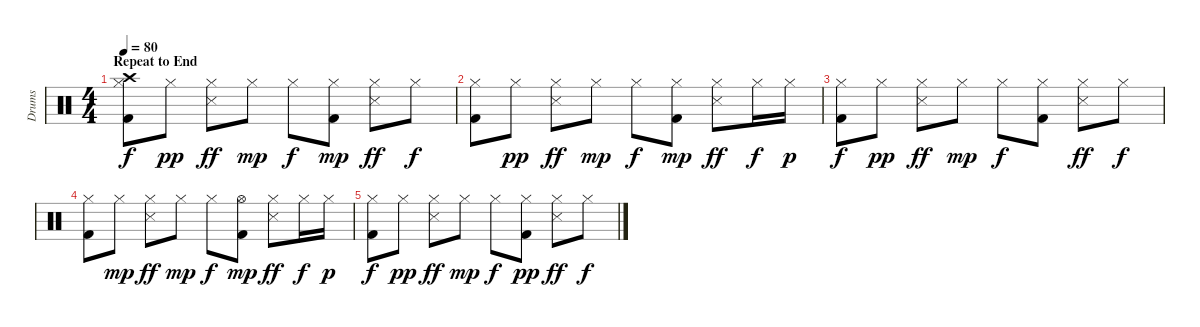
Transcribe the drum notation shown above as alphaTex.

\track ("Drums" "Drums") {instrument percussion}
\staff {score}
\articulation defaults
\ts (4 4)
\section ("" "Repeat to End")
\tempo 80
\clef neutral
\ks c
("Hi-Hat (closed)" "Kick (hit) 2" "Crash high (hit)").8{dy f} "Hi-Hat (closed)".8{dy pp} ("Hi-Hat (closed)" "Snare (side stick) 3").8{dy ff} "Hi-Hat (closed)".8{dy mp} "Hi-Hat (closed)".8{dy f} ("Hi-Hat (closed)" "Kick (hit) 2").8{dy mp} ("Hi-Hat (closed)" "Snare (side stick) 3").8{dy ff} "Hi-Hat (closed)".8{dy f} |
("Hi-Hat (closed)" "Kick (hit) 2").8 "Hi-Hat (closed)".8{dy pp} ("Hi-Hat (closed)" "Snare (side stick) 3").8{dy ff} "Hi-Hat (closed)".8{dy mp} "Hi-Hat (closed)".8{dy f} ("Hi-Hat (closed)" "Kick (hit) 2").8{dy mp} ("Hi-Hat (closed)" "Snare (side stick) 3").8{dy ff} "Hi-Hat (closed)".16{dy f} "Hi-Hat (closed)".16{dy p} |
("Hi-Hat (closed)" "Kick (hit) 2").8{dy f} "Hi-Hat (closed)".8{dy pp} ("Hi-Hat (closed)" "Snare (side stick) 3").8{dy ff} "Hi-Hat (closed)".8{dy mp} "Hi-Hat (closed)".8{dy f} ("Hi-Hat (closed)" "Kick (hit) 2").8 ("Hi-Hat (closed)" "Snare (side stick) 3").8{dy ff} "Hi-Hat (closed)".8{dy f} |
("Hi-Hat (closed)" "Kick (hit) 2").8 "Hi-Hat (closed)".8{dy mp} ("Hi-Hat (closed)" "Snare (side stick) 3").8{dy ff} "Hi-Hat (closed)".8{dy mp} "Hi-Hat (closed)".8{dy f} ("Hi-Hat (open)" "Kick (hit) 2").8{dy mp} ("Hi-Hat (closed)" "Snare (side stick) 3").8{dy ff} "Hi-Hat (closed)".16{dy f} "Hi-Hat (closed)".16{dy p} |
("Hi-Hat (closed)" "Kick (hit) 2").8{dy f} "Hi-Hat (closed)".8{dy pp} ("Hi-Hat (closed)" "Snare (side stick) 3").8{dy ff} "Hi-Hat (closed)".8{dy mp} "Hi-Hat (closed)".8{dy f} ("Hi-Hat (closed)" "Kick (hit) 2").8{dy pp} ("Hi-Hat (closed)" "Snare (side stick) 3").8{dy ff} "Hi-Hat (closed)".8{dy f}
